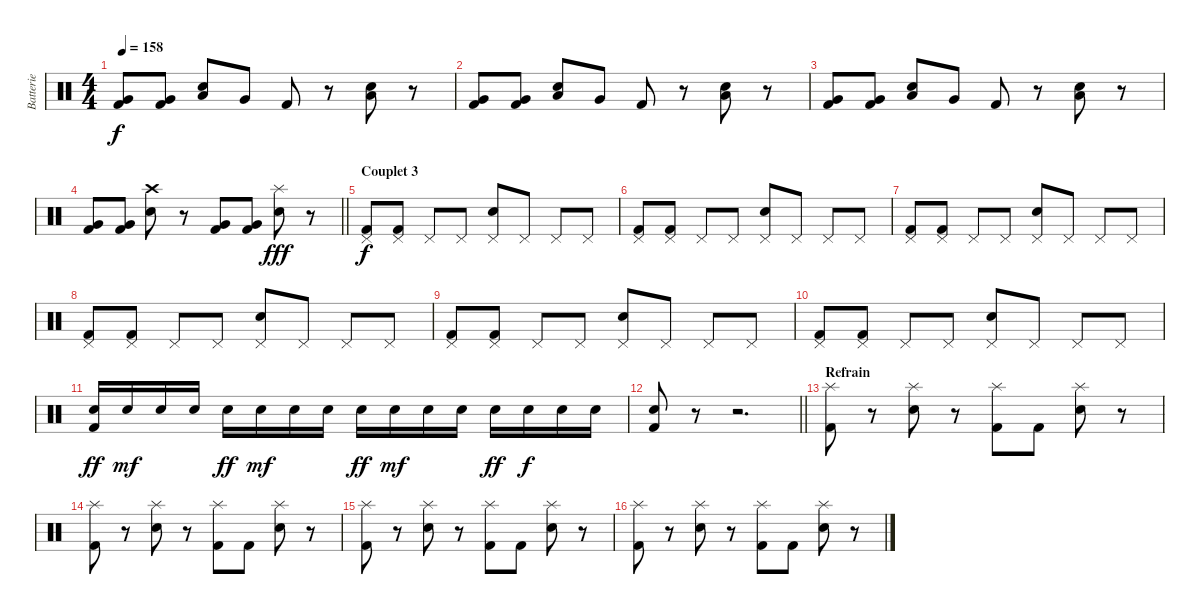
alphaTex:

\track ("Batterie" "Batterie") {instrument percussion}
\staff {score}
\articulation defaults
\ts (4 4)
\tempo 158
\clef neutral
\ks c
("Very Low Tom (hit)" "Kick (hit) 2").8{dy f} ("Very Low Tom (hit)" "Kick (hit) 2").8 ("Electric Snare (hit)" "Low Tom (hit)").8 "Very Low Tom (hit)".8 "Kick (hit) 2".8 r.8 ("Electric Snare (hit)" "Low Tom (hit)").8 r.8 |
("Very Low Tom (hit)" "Kick (hit) 2").8 ("Very Low Tom (hit)" "Kick (hit) 2").8 ("Electric Snare (hit)" "Low Tom (hit)").8 "Very Low Tom (hit)".8 "Kick (hit) 2".8 r.8 ("Electric Snare (hit)" "Low Tom (hit)").8 r.8 |
("Very Low Tom (hit)" "Kick (hit) 2").8 ("Very Low Tom (hit)" "Kick (hit) 2").8 ("Electric Snare (hit)" "Low Tom (hit)").8 "Very Low Tom (hit)".8 "Kick (hit) 2".8 r.8 ("Electric Snare (hit)" "Low Tom (hit)").8 r.8 |
\barLineRight lightlight
("Very Low Tom (hit)" "Kick (hit) 2").8 ("Very Low Tom (hit)" "Kick (hit) 2").8 ("Crash high (hit)" "Electric Snare (hit)").8 r.8 ("Very Low Tom (hit)" "Kick (hit) 2").8 ("Very Low Tom (hit)" "Kick (hit) 2").8 ("Splash (hit)" "Electric Snare (hit)").8{dy fff} r.8 |
\section ("" "Couplet 3")
("Pedal Hi-Hat (hit)" "Kick (hit) 2").8{dy f volume 15} ("Pedal Hi-Hat (hit)" "Kick (hit) 2").8 "Pedal Hi-Hat (hit)".8 "Pedal Hi-Hat (hit)".8 ("Pedal Hi-Hat (hit)" "Electric Snare (hit)").8 "Pedal Hi-Hat (hit)".8 "Pedal Hi-Hat (hit)".8 "Pedal Hi-Hat (hit)".8 |
("Pedal Hi-Hat (hit)" "Kick (hit) 2").8 ("Pedal Hi-Hat (hit)" "Kick (hit) 2").8 "Pedal Hi-Hat (hit)".8 "Pedal Hi-Hat (hit)".8 ("Pedal Hi-Hat (hit)" "Electric Snare (hit)").8 "Pedal Hi-Hat (hit)".8 "Pedal Hi-Hat (hit)".8 "Pedal Hi-Hat (hit)".8 |
("Pedal Hi-Hat (hit)" "Kick (hit) 2").8 ("Pedal Hi-Hat (hit)" "Kick (hit) 2").8 "Pedal Hi-Hat (hit)".8 "Pedal Hi-Hat (hit)".8 ("Pedal Hi-Hat (hit)" "Electric Snare (hit)").8 "Pedal Hi-Hat (hit)".8 "Pedal Hi-Hat (hit)".8 "Pedal Hi-Hat (hit)".8 |
("Pedal Hi-Hat (hit)" "Kick (hit) 2").8 ("Pedal Hi-Hat (hit)" "Kick (hit) 2").8 "Pedal Hi-Hat (hit)".8 "Pedal Hi-Hat (hit)".8 ("Pedal Hi-Hat (hit)" "Electric Snare (hit)").8 "Pedal Hi-Hat (hit)".8 "Pedal Hi-Hat (hit)".8 "Pedal Hi-Hat (hit)".8 |
("Pedal Hi-Hat (hit)" "Kick (hit) 2").8 ("Pedal Hi-Hat (hit)" "Kick (hit) 2").8 "Pedal Hi-Hat (hit)".8 "Pedal Hi-Hat (hit)".8 ("Pedal Hi-Hat (hit)" "Electric Snare (hit)").8 "Pedal Hi-Hat (hit)".8 "Pedal Hi-Hat (hit)".8 "Pedal Hi-Hat (hit)".8 |
("Pedal Hi-Hat (hit)" "Kick (hit) 2").8 ("Pedal Hi-Hat (hit)" "Kick (hit) 2").8 "Pedal Hi-Hat (hit)".8 "Pedal Hi-Hat (hit)".8 ("Pedal Hi-Hat (hit)" "Electric Snare (hit)").8 "Pedal Hi-Hat (hit)".8 "Pedal Hi-Hat (hit)".8 "Pedal Hi-Hat (hit)".8 |
("Electric Snare (hit)" "Kick (hit) 2").16{dy ff} "Electric Snare (hit)".16{dy mf} "Electric Snare (hit)".16 "Electric Snare (hit)".16 "Electric Snare (hit)".16{dy ff} "Electric Snare (hit)".16{dy mf} "Electric Snare (hit)".16 "Electric Snare (hit)".16 "Electric Snare (hit)".16{dy ff} "Electric Snare (hit)".16{dy mf} "Electric Snare (hit)".16 "Electric Snare (hit)".16 "Electric Snare (hit)".16{dy ff} "Electric Snare (hit)".16{dy f} "Electric Snare (hit)".16 "Electric Snare (hit)".16 |
\barLineRight lightlight
("Electric Snare (hit)" "Kick (hit) 2").8 r.8 r.2{d} |
\section ("" "Refrain")
("Splash (hit)" "Kick (hit) 2").8 r.8 ("Splash (hit)" "Electric Snare (hit)").8 r.8 ("Splash (hit)" "Kick (hit) 2").8 "Kick (hit) 2".8 ("Splash (hit)" "Electric Snare (hit)").8 r.8 |
("Splash (hit)" "Kick (hit) 2").8 r.8 ("Splash (hit)" "Electric Snare (hit)").8 r.8 ("Splash (hit)" "Kick (hit) 2").8 "Kick (hit) 2".8 ("Splash (hit)" "Electric Snare (hit)").8 r.8 |
("Splash (hit)" "Kick (hit) 2").8 r.8 ("Splash (hit)" "Electric Snare (hit)").8 r.8 ("Splash (hit)" "Kick (hit) 2").8 "Kick (hit) 2".8 ("Splash (hit)" "Electric Snare (hit)").8 r.8 |
("Splash (hit)" "Kick (hit) 2").8 r.8 ("Splash (hit)" "Electric Snare (hit)").8 r.8 ("Splash (hit)" "Kick (hit) 2").8 "Kick (hit) 2".8 ("Splash (hit)" "Electric Snare (hit)").8 r.8
